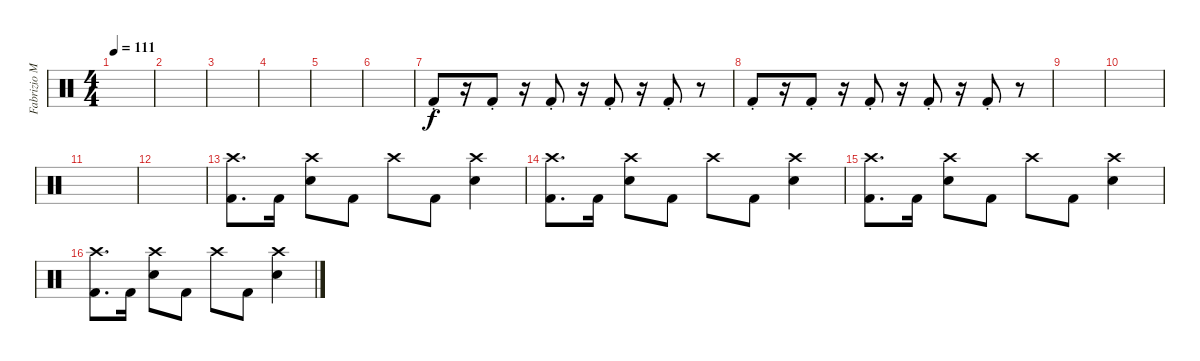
\track ("Fabrizio Moretti" "Fabrizio M") {instrument percussion}
\staff {score}
\articulation defaults
\ts (4 4)
\tempo 111
\clef neutral
\ks c
|
|
|
|
|
|
"Kick (hit) 2"{st}.8 r.16 "Kick (hit) 2"{st}.8 r.16 "Kick (hit) 2"{st}.8 r.16 "Kick (hit) 2"{st}.8 r.16 "Kick (hit) 2"{st}.8 r.8 |
"Kick (hit) 2"{st}.8 r.16 "Kick (hit) 2"{st}.8 r.16 "Kick (hit) 2"{st}.8 r.16 "Kick (hit) 2"{st}.8 r.16 "Kick (hit) 2"{st}.8 r.8 |
|
|
|
|
("Crash high (hit)" "Kick (hit) 2").8{d} "Kick (hit) 2".16 ("Crash high (hit)" "Snare (hit) 2").8 "Kick (hit) 2".8 "Crash high (hit)".8 "Kick (hit) 2".8 ("Crash high (hit)" "Snare (hit) 2").4 |
("Crash high (hit)" "Kick (hit) 2").8{d} "Kick (hit) 2".16 ("Crash high (hit)" "Snare (hit) 2").8 "Kick (hit) 2".8 "Crash high (hit)".8 "Kick (hit) 2".8 ("Crash high (hit)" "Snare (hit) 2").4 |
("Crash high (hit)" "Kick (hit) 2").8{d} "Kick (hit) 2".16 ("Crash high (hit)" "Snare (hit) 2").8 "Kick (hit) 2".8 "Crash high (hit)".8 "Kick (hit) 2".8 ("Crash high (hit)" "Snare (hit) 2").4 |
("Crash high (hit)" "Kick (hit) 2").8{d} "Kick (hit) 2".16 ("Crash high (hit)" "Snare (hit) 2").8 "Kick (hit) 2".8 "Crash high (hit)".8 "Kick (hit) 2".8 ("Crash high (hit)" "Snare (hit) 2").4
